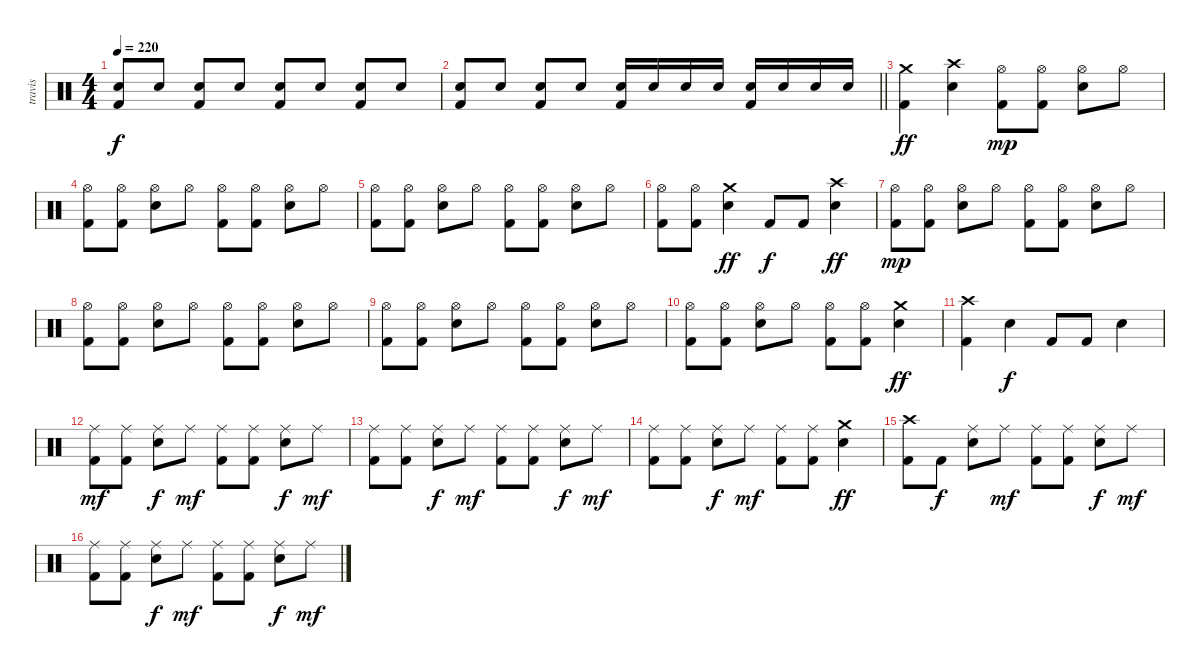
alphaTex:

\track ("travis" "travis") {instrument percussion}
\staff {score}
\articulation defaults
\ts (4 4)
\tempo 220
\clef neutral
\ks c
("Electric Snare (hit)" "Kick (hit) 2").8{dy f} "Electric Snare (hit)".8 ("Electric Snare (hit)" "Kick (hit) 2").8 "Electric Snare (hit)".8 ("Electric Snare (hit)" "Kick (hit) 2").8 "Electric Snare (hit)".8 ("Electric Snare (hit)" "Kick (hit) 2").8 "Electric Snare (hit)".8 |
\barLineRight lightlight
("Electric Snare (hit)" "Kick (hit) 2").8 "Electric Snare (hit)".8 ("Electric Snare (hit)" "Kick (hit) 2").8 "Electric Snare (hit)".8 ("Electric Snare (hit)" "Kick (hit) 2").16 "Electric Snare (hit)".16 "Electric Snare (hit)".16 "Electric Snare (hit)".16 ("Electric Snare (hit)" "Kick (hit) 2").16 "Electric Snare (hit)".16 "Electric Snare (hit)".16 "Electric Snare (hit)".16 |
("Crash medium (hit)" "Kick (hit) 2").4{dy ff} ("Crash high (hit)" "Electric Snare (hit)").4 ("Hi-Hat (open)" "Kick (hit) 2").8{dy mp} ("Hi-Hat (open)" "Kick (hit) 2").8 ("Hi-Hat (open)" "Electric Snare (hit)").8 "Hi-Hat (open)".8 |
("Hi-Hat (open)" "Kick (hit) 2").8 ("Hi-Hat (open)" "Kick (hit) 2").8 ("Hi-Hat (open)" "Electric Snare (hit)").8 "Hi-Hat (open)".8 ("Hi-Hat (open)" "Kick (hit) 2").8 ("Hi-Hat (open)" "Kick (hit) 2").8 ("Hi-Hat (open)" "Electric Snare (hit)").8 "Hi-Hat (open)".8 |
("Hi-Hat (open)" "Kick (hit) 2").8 ("Hi-Hat (open)" "Kick (hit) 2").8 ("Hi-Hat (open)" "Electric Snare (hit)").8 "Hi-Hat (open)".8 ("Hi-Hat (open)" "Kick (hit) 2").8 ("Hi-Hat (open)" "Kick (hit) 2").8 ("Hi-Hat (open)" "Electric Snare (hit)").8 "Hi-Hat (open)".8 |
("Hi-Hat (open)" "Kick (hit) 2").8 ("Hi-Hat (open)" "Kick (hit) 2").8 ("Crash medium (hit)" "Electric Snare (hit)").4{dy ff} "Kick (hit) 2".8{dy f} "Kick (hit) 2".8 ("Crash high (hit)" "Electric Snare (hit)").4{dy ff} |
("Hi-Hat (open)" "Kick (hit) 2").8{dy mp} ("Hi-Hat (open)" "Kick (hit) 2").8 ("Hi-Hat (open)" "Electric Snare (hit)").8 "Hi-Hat (open)".8 ("Hi-Hat (open)" "Kick (hit) 2").8 ("Hi-Hat (open)" "Kick (hit) 2").8 ("Hi-Hat (open)" "Electric Snare (hit)").8 "Hi-Hat (open)".8 |
("Hi-Hat (open)" "Kick (hit) 2").8 ("Hi-Hat (open)" "Kick (hit) 2").8 ("Hi-Hat (open)" "Electric Snare (hit)").8 "Hi-Hat (open)".8 ("Hi-Hat (open)" "Kick (hit) 2").8 ("Hi-Hat (open)" "Kick (hit) 2").8 ("Hi-Hat (open)" "Electric Snare (hit)").8 "Hi-Hat (open)".8 |
("Hi-Hat (open)" "Kick (hit) 2").8 ("Hi-Hat (open)" "Kick (hit) 2").8 ("Hi-Hat (open)" "Electric Snare (hit)").8 "Hi-Hat (open)".8 ("Hi-Hat (open)" "Kick (hit) 2").8 ("Hi-Hat (open)" "Kick (hit) 2").8 ("Hi-Hat (open)" "Electric Snare (hit)").8 "Hi-Hat (open)".8 |
("Hi-Hat (open)" "Kick (hit) 2").8 ("Hi-Hat (open)" "Kick (hit) 2").8 ("Hi-Hat (open)" "Electric Snare (hit)").8 "Hi-Hat (open)".8 ("Hi-Hat (open)" "Kick (hit) 2").8 ("Hi-Hat (open)" "Kick (hit) 2").8 ("Crash medium (hit)" "Electric Snare (hit)").4{dy ff} |
("Crash high (hit)" "Kick (hit) 2").4 "Electric Snare (hit)".4{dy f} "Kick (hit) 2".8 "Kick (hit) 2".8 "Electric Snare (hit)".4 |
("Ride (middle)" "Kick (hit) 2").8{dy mf} ("Ride (middle)" "Kick (hit) 2").8 ("Ride (middle)" "Electric Snare (hit)").8{dy f} "Ride (middle)".8{dy mf} ("Ride (middle)" "Kick (hit) 2").8 ("Ride (middle)" "Kick (hit) 2").8 ("Ride (middle)" "Electric Snare (hit)").8{dy f} "Ride (middle)".8{dy mf} |
("Ride (middle)" "Kick (hit) 2").8 ("Ride (middle)" "Kick (hit) 2").8 ("Ride (middle)" "Electric Snare (hit)").8{dy f} "Ride (middle)".8{dy mf} ("Ride (middle)" "Kick (hit) 2").8 ("Ride (middle)" "Kick (hit) 2").8 ("Ride (middle)" "Electric Snare (hit)").8{dy f} "Ride (middle)".8{dy mf} |
("Ride (middle)" "Kick (hit) 2").8 ("Ride (middle)" "Kick (hit) 2").8 ("Ride (middle)" "Electric Snare (hit)").8{dy f} "Ride (middle)".8{dy mf} ("Ride (middle)" "Kick (hit) 2").8 ("Ride (middle)" "Kick (hit) 2").8 ("Crash medium (hit)" "Electric Snare (hit)").4{dy ff} |
("Crash high (hit)" "Kick (hit) 2").8 "Kick (hit) 2".8{dy f} ("Ride (middle)" "Electric Snare (hit)").8 "Ride (middle)".8{dy mf} ("Ride (middle)" "Kick (hit) 2").8 ("Ride (middle)" "Kick (hit) 2").8 ("Ride (middle)" "Electric Snare (hit)").8{dy f} "Ride (middle)".8{dy mf} |
("Ride (middle)" "Kick (hit) 2").8 ("Ride (middle)" "Kick (hit) 2").8 ("Ride (middle)" "Electric Snare (hit)").8{dy f} "Ride (middle)".8{dy mf} ("Ride (middle)" "Kick (hit) 2").8 ("Ride (middle)" "Kick (hit) 2").8 ("Ride (middle)" "Electric Snare (hit)").8{dy f} "Ride (middle)".8{dy mf}
